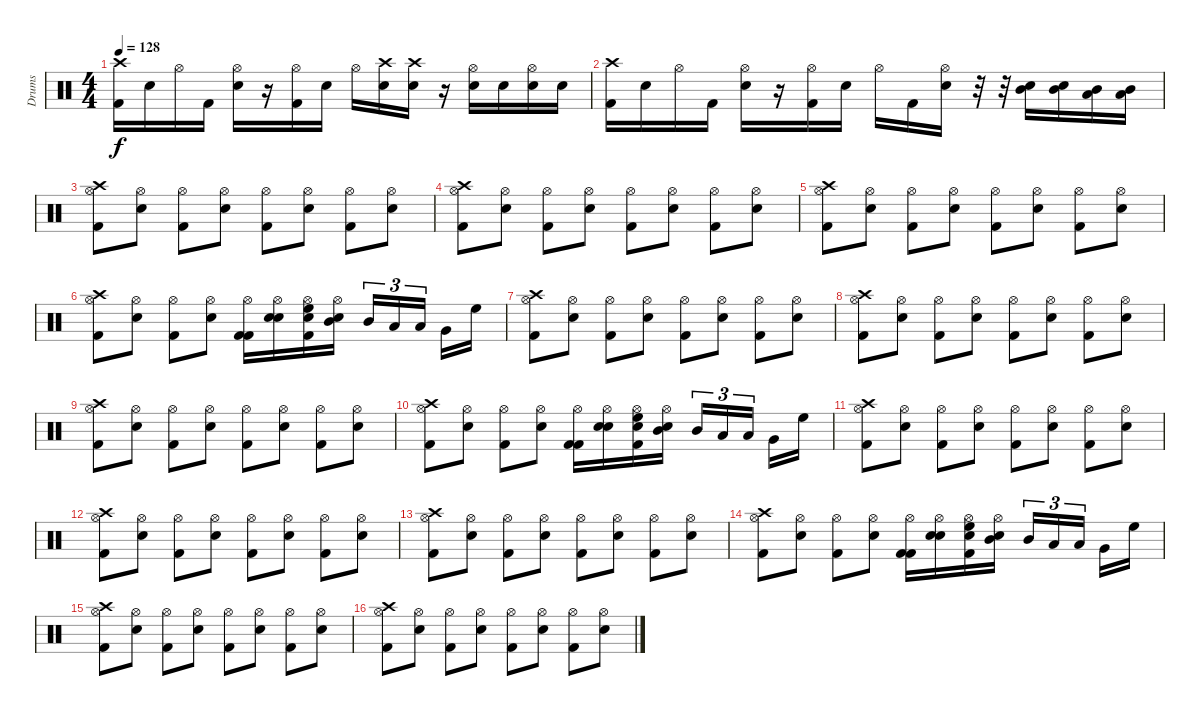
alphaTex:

\track ("Drums" "Drums") {instrument percussion}
\staff {score}
\articulation defaults
\ts (4 4)
\tempo 128
\clef neutral
\ks c
("Kick (hit) 2" "Crash high (hit)").16{dy f} "Electric Snare (hit)".16 "Hi-Hat (open)".16 "Kick (hit) 2".16 ("Electric Snare (hit)" "Hi-Hat (open)").16 r.16 ("Kick (hit) 2" "Hi-Hat (open)").16 "Electric Snare (hit)".16 "Hi-Hat (open)".16 ("Snare (hit) 2" "Crash high (hit)").16 ("Snare (hit) 2" "Crash high (hit)").16 r.16 ("Electric Snare (hit)" "Hi-Hat (open)").16 "Electric Snare (hit)".16 ("Electric Snare (hit)" "Hi-Hat (open)").16 "Electric Snare (hit)".16 |
("Kick (hit) 2" "Crash high (hit)").16 "Electric Snare (hit)".16 "Hi-Hat (open)".16 "Kick (hit) 2".16 ("Electric Snare (hit)" "Hi-Hat (open)").16 r.16 ("Kick (hit) 2" "Hi-Hat (open)").16 "Electric Snare (hit)".16 "Hi-Hat (open)".16 "Kick (hit) 2".16 ("Electric Snare (hit)" "Hi-Hat (open)").16 r.32 r.32 ("Electric Snare (hit)" "Mid Tom (hit)").16 ("Electric Snare (hit)" "Mid Tom (hit)").16 ("Low Tom (hit)" "Mid Tom (hit)").16 ("Low Tom (hit)" "Mid Tom (hit)").16 |
("Crash high (hit)" "Hi-Hat (open)" "Kick (hit) 2").8 ("Hi-Hat (open)" "Snare (hit) 2").8 ("Hi-Hat (open)" "Kick (hit) 2").8 ("Hi-Hat (open)" "Snare (hit) 2").8 ("Hi-Hat (open)" "Kick (hit) 2").8 ("Hi-Hat (open)" "Snare (hit) 2").8 ("Hi-Hat (open)" "Kick (hit) 2").8 ("Hi-Hat (open)" "Snare (hit) 2").8 |
("Crash high (hit)" "Hi-Hat (open)" "Kick (hit) 2").8 ("Hi-Hat (open)" "Snare (hit) 2").8 ("Hi-Hat (open)" "Kick (hit) 2").8 ("Hi-Hat (open)" "Snare (hit) 2").8 ("Hi-Hat (open)" "Kick (hit) 2").8 ("Hi-Hat (open)" "Snare (hit) 2").8 ("Hi-Hat (open)" "Kick (hit) 2").8 ("Hi-Hat (open)" "Snare (hit) 2").8 |
("Crash high (hit)" "Hi-Hat (open)" "Kick (hit) 2").8 ("Hi-Hat (open)" "Snare (hit) 2").8 ("Hi-Hat (open)" "Kick (hit) 2").8 ("Hi-Hat (open)" "Snare (hit) 2").8 ("Hi-Hat (open)" "Kick (hit) 2").8 ("Hi-Hat (open)" "Snare (hit) 2").8 ("Hi-Hat (open)" "Kick (hit) 2").8 ("Hi-Hat (open)" "Snare (hit) 2").8 |
("Crash high (hit)" "Hi-Hat (open)" "Kick (hit) 2").8 ("Hi-Hat (open)" "Snare (hit) 2").8 ("Hi-Hat (open)" "Kick (hit) 2").8 ("Hi-Hat (open)" "Snare (hit) 2").8 ("Hi-Hat (open)" "Kick (hit) 2" "Kick (hit) 2").16 ("Hi-Hat (open)" "Snare (hit) 2" "Electric Snare (hit)").16 ("Hi-Hat (open)" "High Floor Tom (hit)" "Electric Snare (hit)" "Kick (hit) 2").16 ("Hi-Hat (open)" "Snare (hit) 2" "Mid Tom (hit)").16 "Mid Tom (hit)".16{tu (3 2)} "Low Tom (hit)".16{tu (3 2)} "Low Tom (hit)".16{tu (3 2)} "Very Low Tom (hit)".16 "High Floor Tom (hit)".16 |
("Crash high (hit)" "Hi-Hat (open)" "Kick (hit) 2").8 ("Hi-Hat (open)" "Snare (hit) 2").8 ("Hi-Hat (open)" "Kick (hit) 2").8 ("Hi-Hat (open)" "Snare (hit) 2").8 ("Hi-Hat (open)" "Kick (hit) 2").8 ("Hi-Hat (open)" "Snare (hit) 2").8 ("Hi-Hat (open)" "Kick (hit) 2").8 ("Hi-Hat (open)" "Snare (hit) 2").8 |
("Crash high (hit)" "Hi-Hat (open)" "Kick (hit) 2").8 ("Hi-Hat (open)" "Snare (hit) 2").8 ("Hi-Hat (open)" "Kick (hit) 2").8 ("Hi-Hat (open)" "Snare (hit) 2").8 ("Hi-Hat (open)" "Kick (hit) 2").8 ("Hi-Hat (open)" "Snare (hit) 2").8 ("Hi-Hat (open)" "Kick (hit) 2").8 ("Hi-Hat (open)" "Snare (hit) 2").8 |
("Crash high (hit)" "Hi-Hat (open)" "Kick (hit) 2").8 ("Hi-Hat (open)" "Snare (hit) 2").8 ("Hi-Hat (open)" "Kick (hit) 2").8 ("Hi-Hat (open)" "Snare (hit) 2").8 ("Hi-Hat (open)" "Kick (hit) 2").8 ("Hi-Hat (open)" "Snare (hit) 2").8 ("Hi-Hat (open)" "Kick (hit) 2").8 ("Hi-Hat (open)" "Snare (hit) 2").8 |
("Crash high (hit)" "Hi-Hat (open)" "Kick (hit) 2").8 ("Hi-Hat (open)" "Snare (hit) 2").8 ("Hi-Hat (open)" "Kick (hit) 2").8 ("Hi-Hat (open)" "Snare (hit) 2").8 ("Hi-Hat (open)" "Kick (hit) 2" "Kick (hit) 2").16 ("Hi-Hat (open)" "Snare (hit) 2" "Electric Snare (hit)").16 ("Hi-Hat (open)" "High Floor Tom (hit)" "Electric Snare (hit)" "Kick (hit) 2").16 ("Hi-Hat (open)" "Snare (hit) 2" "Mid Tom (hit)").16 "Mid Tom (hit)".16{tu (3 2)} "Low Tom (hit)".16{tu (3 2)} "Low Tom (hit)".16{tu (3 2)} "Very Low Tom (hit)".16 "High Floor Tom (hit)".16 |
("Crash high (hit)" "Hi-Hat (open)" "Kick (hit) 2").8 ("Hi-Hat (open)" "Snare (hit) 2").8 ("Hi-Hat (open)" "Kick (hit) 2").8 ("Hi-Hat (open)" "Snare (hit) 2").8 ("Hi-Hat (open)" "Kick (hit) 2").8 ("Hi-Hat (open)" "Snare (hit) 2").8 ("Hi-Hat (open)" "Kick (hit) 2").8 ("Hi-Hat (open)" "Snare (hit) 2").8 |
("Crash high (hit)" "Hi-Hat (open)" "Kick (hit) 2").8 ("Hi-Hat (open)" "Snare (hit) 2").8 ("Hi-Hat (open)" "Kick (hit) 2").8 ("Hi-Hat (open)" "Snare (hit) 2").8 ("Hi-Hat (open)" "Kick (hit) 2").8 ("Hi-Hat (open)" "Snare (hit) 2").8 ("Hi-Hat (open)" "Kick (hit) 2").8 ("Hi-Hat (open)" "Snare (hit) 2").8 |
("Crash high (hit)" "Hi-Hat (open)" "Kick (hit) 2").8 ("Hi-Hat (open)" "Snare (hit) 2").8 ("Hi-Hat (open)" "Kick (hit) 2").8 ("Hi-Hat (open)" "Snare (hit) 2").8 ("Hi-Hat (open)" "Kick (hit) 2").8 ("Hi-Hat (open)" "Snare (hit) 2").8 ("Hi-Hat (open)" "Kick (hit) 2").8 ("Hi-Hat (open)" "Snare (hit) 2").8 |
("Crash high (hit)" "Hi-Hat (open)" "Kick (hit) 2").8 ("Hi-Hat (open)" "Snare (hit) 2").8 ("Hi-Hat (open)" "Kick (hit) 2").8 ("Hi-Hat (open)" "Snare (hit) 2").8 ("Hi-Hat (open)" "Kick (hit) 2" "Kick (hit) 2").16 ("Hi-Hat (open)" "Snare (hit) 2" "Electric Snare (hit)").16 ("Hi-Hat (open)" "High Floor Tom (hit)" "Electric Snare (hit)" "Kick (hit) 2").16 ("Hi-Hat (open)" "Snare (hit) 2" "Mid Tom (hit)").16 "Mid Tom (hit)".16{tu (3 2)} "Low Tom (hit)".16{tu (3 2)} "Low Tom (hit)".16{tu (3 2)} "Very Low Tom (hit)".16 "High Floor Tom (hit)".16 |
("Crash high (hit)" "Hi-Hat (open)" "Kick (hit) 2").8 ("Hi-Hat (open)" "Snare (hit) 2").8 ("Hi-Hat (open)" "Kick (hit) 2").8 ("Hi-Hat (open)" "Snare (hit) 2").8 ("Hi-Hat (open)" "Kick (hit) 2").8 ("Hi-Hat (open)" "Snare (hit) 2").8 ("Hi-Hat (open)" "Kick (hit) 2").8 ("Hi-Hat (open)" "Snare (hit) 2").8 |
("Crash high (hit)" "Hi-Hat (open)" "Kick (hit) 2").8 ("Hi-Hat (open)" "Snare (hit) 2").8 ("Hi-Hat (open)" "Kick (hit) 2").8 ("Hi-Hat (open)" "Snare (hit) 2").8 ("Hi-Hat (open)" "Kick (hit) 2").8 ("Hi-Hat (open)" "Snare (hit) 2").8 ("Hi-Hat (open)" "Kick (hit) 2").8 ("Hi-Hat (open)" "Snare (hit) 2").8
